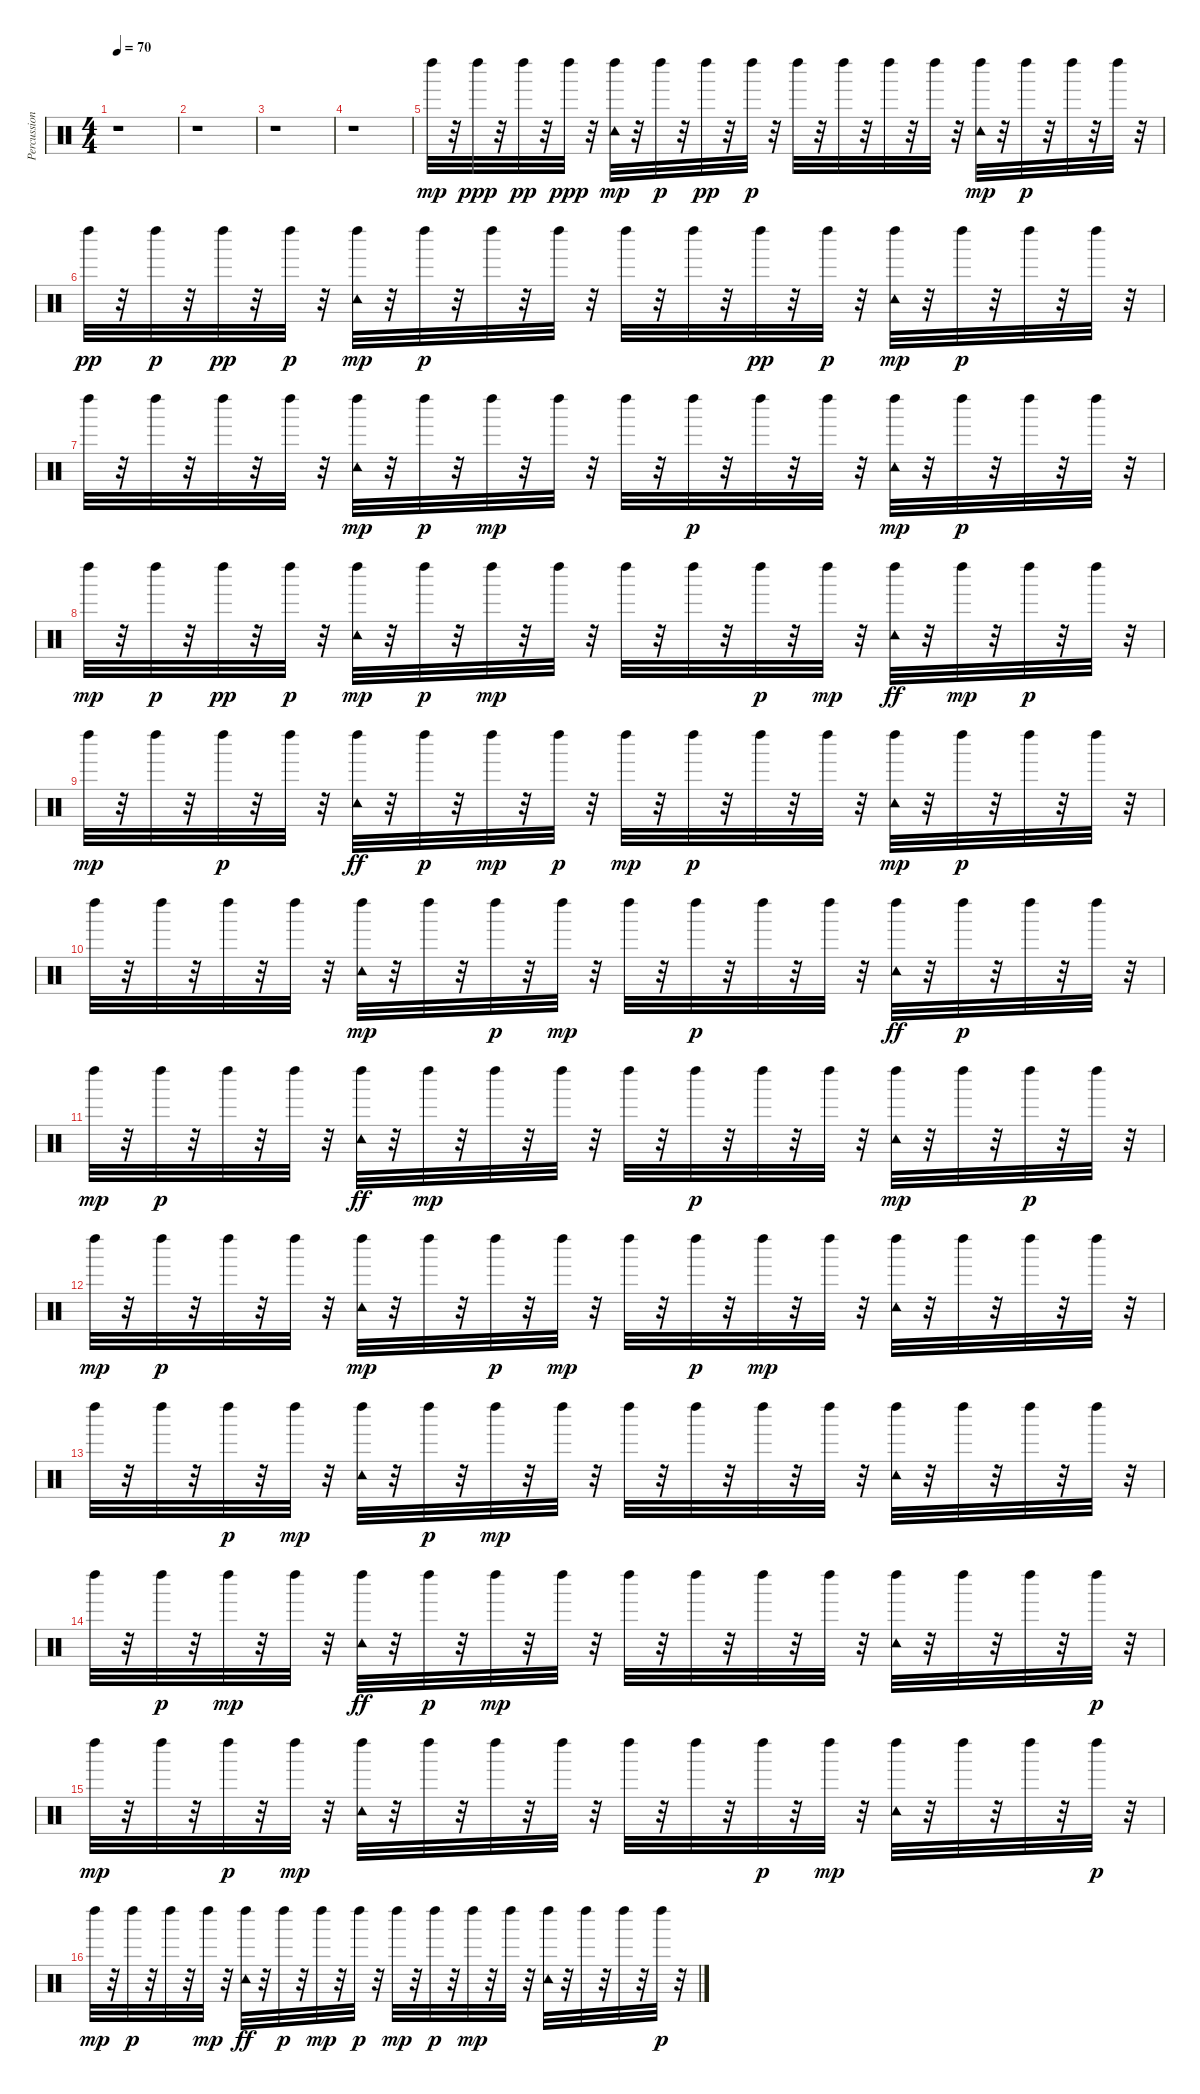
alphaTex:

\track ("Percussion" "Percussion") {instrument percussion}
\staff {score}
\articulation defaults
\ts (4 4)
\tempo 70
\clef neutral
\ks c
r.1{dy mp} |
r.1 |
r.1 |
r.1 |
"Left Maraca (hit)".32 r.32 "Left Maraca (hit)".32{dy ppp} r.32 "Left Maraca (hit)".32{dy pp} r.32 "Left Maraca (hit)".32{dy ppp} r.32 ("Tambourine (hit)" "Left Maraca (hit)").32{dy mp} r.32 "Left Maraca (hit)".32{dy p} r.32 "Left Maraca (hit)".32{dy pp} r.32 "Left Maraca (hit)".32{dy p} r.32 "Left Maraca (hit)".32 r.32 "Left Maraca (hit)".32 r.32 "Left Maraca (hit)".32 r.32 "Left Maraca (hit)".32 r.32 ("Tambourine (hit)" "Left Maraca (hit)").32{dy mp} r.32 "Left Maraca (hit)".32{dy p} r.32 "Left Maraca (hit)".32 r.32 "Left Maraca (hit)".32 r.32 |
"Left Maraca (hit)".32{dy pp} r.32 "Left Maraca (hit)".32{dy p} r.32 "Left Maraca (hit)".32{dy pp} r.32 "Left Maraca (hit)".32{dy p} r.32 ("Tambourine (hit)" "Left Maraca (hit)").32{dy mp} r.32 "Left Maraca (hit)".32{dy p} r.32 "Left Maraca (hit)".32 r.32 "Left Maraca (hit)".32 r.32 "Left Maraca (hit)".32 r.32 "Left Maraca (hit)".32 r.32 "Left Maraca (hit)".32{dy pp} r.32 "Left Maraca (hit)".32{dy p} r.32 ("Tambourine (hit)" "Left Maraca (hit)").32{dy mp} r.32 "Left Maraca (hit)".32{dy p} r.32 "Left Maraca (hit)".32 r.32 "Left Maraca (hit)".32 r.32 |
"Left Maraca (hit)".32 r.32 "Left Maraca (hit)".32 r.32 "Left Maraca (hit)".32 r.32 "Left Maraca (hit)".32 r.32 ("Tambourine (hit)" "Left Maraca (hit)").32{dy mp} r.32 "Left Maraca (hit)".32{dy p} r.32 "Left Maraca (hit)".32{dy mp} r.32 "Left Maraca (hit)".32 r.32 "Left Maraca (hit)".32 r.32 "Left Maraca (hit)".32{dy p} r.32 "Left Maraca (hit)".32 r.32 "Left Maraca (hit)".32 r.32 ("Tambourine (hit)" "Left Maraca (hit)").32{dy mp} r.32 "Left Maraca (hit)".32{dy p} r.32 "Left Maraca (hit)".32 r.32 "Left Maraca (hit)".32 r.32 |
"Left Maraca (hit)".32{dy mp} r.32 "Left Maraca (hit)".32{dy p} r.32 "Left Maraca (hit)".32{dy pp} r.32 "Left Maraca (hit)".32{dy p} r.32 ("Tambourine (hit)" "Left Maraca (hit)").32{dy mp} r.32 "Left Maraca (hit)".32{dy p} r.32 "Left Maraca (hit)".32{dy mp} r.32 "Left Maraca (hit)".32 r.32 "Left Maraca (hit)".32 r.32 "Left Maraca (hit)".32 r.32 "Left Maraca (hit)".32{dy p} r.32 "Left Maraca (hit)".32{dy mp} r.32 ("Left Maraca (hit)" "Tambourine (hit)").32{dy ff} r.32 "Left Maraca (hit)".32{dy mp} r.32 "Left Maraca (hit)".32{dy p} r.32 "Left Maraca (hit)".32 r.32 |
"Left Maraca (hit)".32{dy mp} r.32 "Left Maraca (hit)".32 r.32 "Left Maraca (hit)".32{dy p} r.32 "Left Maraca (hit)".32 r.32 ("Left Maraca (hit)" "Tambourine (hit)").32{dy ff} r.32 "Left Maraca (hit)".32{dy p} r.32 "Left Maraca (hit)".32{dy mp} r.32 "Left Maraca (hit)".32{dy p} r.32 "Left Maraca (hit)".32{dy mp} r.32 "Left Maraca (hit)".32{dy p} r.32 "Left Maraca (hit)".32 r.32 "Left Maraca (hit)".32 r.32 ("Tambourine (hit)" "Left Maraca (hit)").32{dy mp} r.32 "Left Maraca (hit)".32{dy p} r.32 "Left Maraca (hit)".32 r.32 "Left Maraca (hit)".32 r.32 |
"Left Maraca (hit)".32 r.32 "Left Maraca (hit)".32 r.32 "Left Maraca (hit)".32 r.32 "Left Maraca (hit)".32 r.32 ("Tambourine (hit)" "Left Maraca (hit)").32{dy mp} r.32 "Left Maraca (hit)".32 r.32 "Left Maraca (hit)".32{dy p} r.32 "Left Maraca (hit)".32{dy mp} r.32 "Left Maraca (hit)".32 r.32 "Left Maraca (hit)".32{dy p} r.32 "Left Maraca (hit)".32 r.32 "Left Maraca (hit)".32 r.32 ("Left Maraca (hit)" "Tambourine (hit)").32{dy ff} r.32 "Left Maraca (hit)".32{dy p} r.32 "Left Maraca (hit)".32 r.32 "Left Maraca (hit)".32 r.32 |
"Left Maraca (hit)".32{dy mp} r.32 "Left Maraca (hit)".32{dy p} r.32 "Left Maraca (hit)".32 r.32 "Left Maraca (hit)".32 r.32 ("Left Maraca (hit)" "Tambourine (hit)").32{dy ff} r.32 "Left Maraca (hit)".32{dy mp} r.32 "Left Maraca (hit)".32 r.32 "Left Maraca (hit)".32 r.32 "Left Maraca (hit)".32 r.32 "Left Maraca (hit)".32{dy p} r.32 "Left Maraca (hit)".32 r.32 "Left Maraca (hit)".32 r.32 ("Tambourine (hit)" "Left Maraca (hit)").32{dy mp} r.32 "Left Maraca (hit)".32 r.32 "Left Maraca (hit)".32{dy p} r.32 "Left Maraca (hit)".32 r.32 |
"Left Maraca (hit)".32{dy mp} r.32 "Left Maraca (hit)".32{dy p} r.32 "Left Maraca (hit)".32 r.32 "Left Maraca (hit)".32 r.32 ("Tambourine (hit)" "Left Maraca (hit)").32{dy mp} r.32 "Left Maraca (hit)".32 r.32 "Left Maraca (hit)".32{dy p} r.32 "Left Maraca (hit)".32{dy mp} r.32 "Left Maraca (hit)".32 r.32 "Left Maraca (hit)".32{dy p} r.32 "Left Maraca (hit)".32{dy mp} r.32 "Left Maraca (hit)".32 r.32 ("Tambourine (hit)" "Left Maraca (hit)").32 r.32 "Left Maraca (hit)".32 r.32 "Left Maraca (hit)".32 r.32 "Left Maraca (hit)".32 r.32 |
"Left Maraca (hit)".32 r.32 "Left Maraca (hit)".32 r.32 "Left Maraca (hit)".32{dy p} r.32 "Left Maraca (hit)".32{dy mp} r.32 ("Tambourine (hit)" "Left Maraca (hit)").32 r.32 "Left Maraca (hit)".32{dy p} r.32 "Left Maraca (hit)".32{dy mp} r.32 "Left Maraca (hit)".32 r.32 "Left Maraca (hit)".32 r.32 "Left Maraca (hit)".32 r.32 "Left Maraca (hit)".32 r.32 "Left Maraca (hit)".32 r.32 ("Tambourine (hit)" "Left Maraca (hit)").32 r.32 "Left Maraca (hit)".32 r.32 "Left Maraca (hit)".32 r.32 "Left Maraca (hit)".32 r.32 |
"Left Maraca (hit)".32 r.32 "Left Maraca (hit)".32{dy p} r.32 "Left Maraca (hit)".32{dy mp} r.32 "Left Maraca (hit)".32 r.32 ("Left Maraca (hit)" "Tambourine (hit)").32{dy ff} r.32 "Left Maraca (hit)".32{dy p} r.32 "Left Maraca (hit)".32{dy mp} r.32 "Left Maraca (hit)".32 r.32 "Left Maraca (hit)".32 r.32 "Left Maraca (hit)".32 r.32 "Left Maraca (hit)".32 r.32 "Left Maraca (hit)".32 r.32 ("Tambourine (hit)" "Left Maraca (hit)").32 r.32 "Left Maraca (hit)".32 r.32 "Left Maraca (hit)".32 r.32 "Left Maraca (hit)".32{dy p} r.32 |
"Left Maraca (hit)".32{dy mp} r.32 "Left Maraca (hit)".32 r.32 "Left Maraca (hit)".32{dy p} r.32 "Left Maraca (hit)".32{dy mp} r.32 ("Tambourine (hit)" "Left Maraca (hit)").32 r.32 "Left Maraca (hit)".32 r.32 "Left Maraca (hit)".32 r.32 "Left Maraca (hit)".32 r.32 "Left Maraca (hit)".32 r.32 "Left Maraca (hit)".32 r.32 "Left Maraca (hit)".32{dy p} r.32 "Left Maraca (hit)".32{dy mp} r.32 ("Tambourine (hit)" "Left Maraca (hit)").32 r.32 "Left Maraca (hit)".32 r.32 "Left Maraca (hit)".32 r.32 "Left Maraca (hit)".32{dy p} r.32 |
"Left Maraca (hit)".32{dy mp} r.32 "Left Maraca (hit)".32{dy p} r.32 "Left Maraca (hit)".32 r.32 "Left Maraca (hit)".32{dy mp} r.32 ("Left Maraca (hit)" "Tambourine (hit)").32{dy ff} r.32 "Left Maraca (hit)".32{dy p} r.32 "Left Maraca (hit)".32{dy mp} r.32 "Left Maraca (hit)".32{dy p} r.32 "Left Maraca (hit)".32{dy mp} r.32 "Left Maraca (hit)".32{dy p} r.32 "Left Maraca (hit)".32{dy mp} r.32 "Left Maraca (hit)".32 r.32 ("Tambourine (hit)" "Left Maraca (hit)").32 r.32 "Left Maraca (hit)".32 r.32 "Left Maraca (hit)".32 r.32 "Left Maraca (hit)".32{dy p} r.32
